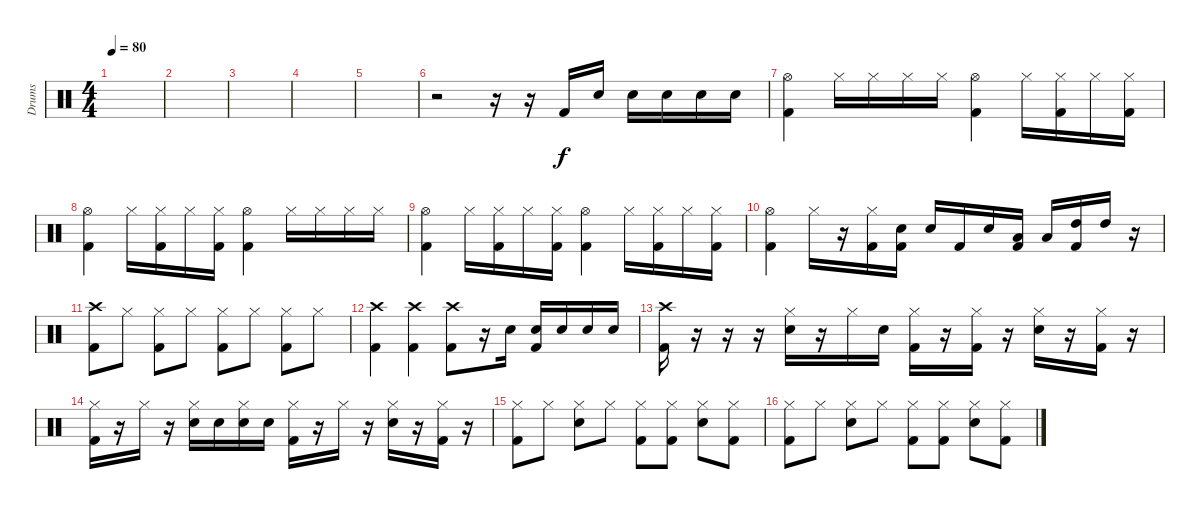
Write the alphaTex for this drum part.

\track ("Drums" "Drums") {instrument percussion}
\staff {score}
\articulation defaults
\ts (4 4)
\tempo 80
\clef neutral
\ks c
|
|
|
|
|
r.2 r.16 r.16 "Kick (hit) 2".16 "Snare (hit) 2".16 "Snare (hit) 2".16 "Snare (hit) 2".16 "Snare (hit) 2".16 "Snare (hit) 2".16 |
("Hi-Hat (open)" "Kick (hit) 2").4 "Hi-Hat (closed)".16 "Hi-Hat (closed)".16 "Hi-Hat (closed)".16 "Hi-Hat (closed)".16 ("Hi-Hat (open)" "Kick (hit) 2").4 "Hi-Hat (closed)".16 ("Hi-Hat (closed)" "Kick (hit) 2").16 "Hi-Hat (closed)".16 ("Hi-Hat (closed)" "Kick (hit) 2").16 |
("Hi-Hat (open)" "Kick (hit) 2").4 "Hi-Hat (closed)".16 ("Hi-Hat (closed)" "Kick (hit) 2").16 "Hi-Hat (closed)".16 ("Hi-Hat (closed)" "Kick (hit) 2").16 ("Hi-Hat (open)" "Kick (hit) 2").4 "Hi-Hat (closed)".16 "Hi-Hat (closed)".16 "Hi-Hat (closed)".16 "Hi-Hat (closed)".16 |
("Hi-Hat (open)" "Kick (hit) 2").4 "Hi-Hat (closed)".16 ("Hi-Hat (closed)" "Kick (hit) 2").16 "Hi-Hat (closed)".16 ("Hi-Hat (closed)" "Kick (hit) 2").16 ("Hi-Hat (open)" "Kick (hit) 2").4 "Hi-Hat (closed)".16 ("Hi-Hat (closed)" "Kick (hit) 2").16 "Hi-Hat (closed)".16 ("Hi-Hat (closed)" "Kick (hit) 2").16 |
("Hi-Hat (open)" "Kick (hit) 2").4 "Hi-Hat (closed)".16 r.16 ("Hi-Hat (closed)" "Kick (hit) 2").16 ("Snare (hit) 2" "Kick (hit) 2").16 "Snare (hit) 2".16 "Kick (hit) 2".16 "Snare (hit) 2".16 ("Low Tom (hit)" "Kick (hit) 2").16 "Low Tom (hit)".16 ("High Tom (hit)" "Kick (hit) 2").16 "High Tom (hit)".16 r.16 |
("Crash high (hit)" "Kick (hit) 2").8 "Hi-Hat (closed)".8 ("Hi-Hat (closed)" "Kick (hit) 2").8 "Hi-Hat (closed)".8 ("Hi-Hat (closed)" "Kick (hit) 2").8 "Hi-Hat (closed)".8 ("Hi-Hat (closed)" "Kick (hit) 2").8 "Hi-Hat (closed)".8 |
("Crash high (hit)" "Kick (hit) 2").4 ("Crash high (hit)" "Kick (hit) 2").4 ("Crash high (hit)" "Kick (hit) 2").8 r.16 "Snare (hit) 2".16 ("Snare (hit) 2" "Kick (hit) 2").16 "Snare (hit) 2".16 "Snare (hit) 2".16 "Snare (hit) 2".16 |
("Crash high (hit)" "Kick (hit) 2").16 r.16 r.16 r.16 ("Hi-Hat (closed)" "Snare (hit) 2").16 r.16 "Hi-Hat (closed)".16 "Snare (hit) 2".16 ("Hi-Hat (closed)" "Kick (hit) 2").16 r.16 ("Hi-Hat (closed)" "Kick (hit) 2").16 r.16 ("Hi-Hat (closed)" "Snare (hit) 2").16 r.16 ("Hi-Hat (closed)" "Kick (hit) 2").16 r.16 |
("Hi-Hat (closed)" "Kick (hit) 2").16 r.16 "Hi-Hat (closed)".16 r.16 ("Hi-Hat (closed)" "Snare (hit) 2").16 "Snare (hit) 2".16 ("Hi-Hat (closed)" "Snare (hit) 2").16 "Snare (hit) 2".16 ("Hi-Hat (closed)" "Kick (hit) 2").16 r.16 "Hi-Hat (closed)".16 r.16 ("Hi-Hat (closed)" "Snare (hit) 2").16 r.16 ("Hi-Hat (closed)" "Kick (hit) 2").16 r.16 |
("Hi-Hat (closed)" "Kick (hit) 2").8 "Hi-Hat (closed)".8 ("Hi-Hat (closed)" "Snare (hit) 2").8 "Hi-Hat (closed)".8 ("Hi-Hat (closed)" "Kick (hit) 2").8 ("Hi-Hat (closed)" "Kick (hit) 2").8 ("Hi-Hat (closed)" "Snare (hit) 2").8 ("Hi-Hat (closed)" "Kick (hit) 2").8 |
("Hi-Hat (closed)" "Kick (hit) 2").8 "Hi-Hat (closed)".8 ("Hi-Hat (closed)" "Snare (hit) 2").8 "Hi-Hat (closed)".8 ("Hi-Hat (closed)" "Kick (hit) 2").8 ("Hi-Hat (closed)" "Kick (hit) 2").8 ("Hi-Hat (closed)" "Snare (hit) 2").8 ("Hi-Hat (closed)" "Kick (hit) 2").8
